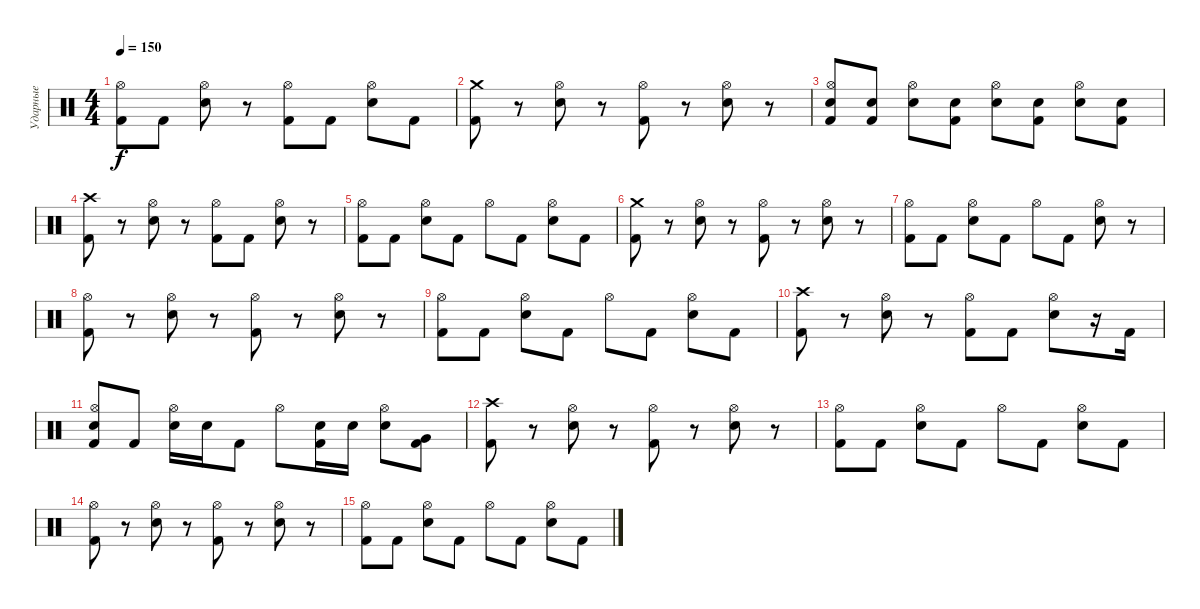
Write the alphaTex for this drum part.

\track ("Ударные" "Ударные") {instrument percussion}
\staff
\articulation defaults
\ts (4 4)
\tempo 150
\clef neutral
\ks c
("Kick (hit) 2" "Hi-Hat (open)").8{dy f} "Kick (hit) 2".8 ("Snare (hit) 2" "Hi-Hat (open)").8 r.8 ("Kick (hit) 2" "Hi-Hat (open)").8 "Kick (hit) 2".8 ("Snare (hit) 2" "Hi-Hat (open)").8 "Kick (hit) 2".8 |
("Kick (hit) 2" "Crash medium (hit)").8 r.8 ("Snare (hit) 2" "Hi-Hat (open)").8 r.8 ("Kick (hit) 2" "Hi-Hat (open)").8 r.8 ("Snare (hit) 2" "Hi-Hat (open)").8 r.8 |
("Kick (hit) 2" "Snare (hit) 2" "Hi-Hat (open)").8 ("Kick (hit) 2" "Snare (hit) 2").8 ("Snare (hit) 2" "Hi-Hat (open)").8 ("Kick (hit) 2" "Snare (hit) 2").8 ("Snare (hit) 2" "Hi-Hat (open)").8 ("Kick (hit) 2" "Snare (hit) 2").8 ("Snare (hit) 2" "Hi-Hat (open)").8 ("Kick (hit) 2" "Snare (hit) 2").8 |
("Kick (hit) 2" "Crash high (hit)").8 r.8 ("Snare (hit) 2" "Hi-Hat (open)").8 r.8 ("Kick (hit) 2" "Hi-Hat (open)").8 "Kick (hit) 2".8 ("Snare (hit) 2" "Hi-Hat (open)").8 r.8 |
("Kick (hit) 2" "Hi-Hat (open)").8 "Kick (hit) 2".8 ("Snare (hit) 2" "Hi-Hat (open)").8 "Kick (hit) 2".8 "Hi-Hat (open)".8 "Kick (hit) 2".8 ("Snare (hit) 2" "Hi-Hat (open)").8 "Kick (hit) 2".8 |
("Kick (hit) 2" "Crash medium (hit)").8 r.8 ("Snare (hit) 2" "Hi-Hat (open)").8 r.8 ("Kick (hit) 2" "Hi-Hat (open)").8 r.8 ("Snare (hit) 2" "Hi-Hat (open)").8 r.8 |
("Kick (hit) 2" "Hi-Hat (open)").8 "Kick (hit) 2".8 ("Snare (hit) 2" "Hi-Hat (open)").8 "Kick (hit) 2".8 "Hi-Hat (open)".8 "Kick (hit) 2".8 ("Snare (hit) 2" "Hi-Hat (open)").8 r.8 |
("Kick (hit) 2" "Hi-Hat (open)").8 r.8 ("Snare (hit) 2" "Hi-Hat (open)").8 r.8 ("Kick (hit) 2" "Hi-Hat (open)").8 r.8 ("Snare (hit) 2" "Hi-Hat (open)").8 r.8 |
("Kick (hit) 2" "Hi-Hat (open)").8 "Kick (hit) 2".8 ("Snare (hit) 2" "Hi-Hat (open)").8 "Kick (hit) 2".8 "Hi-Hat (open)".8 "Kick (hit) 2".8 ("Snare (hit) 2" "Hi-Hat (open)").8 "Kick (hit) 2".8 |
("Kick (hit) 2" "Crash high (hit)").8 r.8 ("Snare (hit) 2" "Hi-Hat (open)").8 r.8 ("Kick (hit) 2" "Hi-Hat (open)").8 "Kick (hit) 2".8 ("Snare (hit) 2" "Hi-Hat (open)").8 r.16 "Kick (hit) 2".16 |
("Kick (hit) 2" "Snare (hit) 2" "Hi-Hat (open)").8 "Kick (hit) 2".8 ("Snare (hit) 2" "Hi-Hat (open)").16 "Snare (hit) 2".16 "Kick (hit) 2".8 "Hi-Hat (open)".8 ("Kick (hit) 2" "Snare (hit) 2").16 "Snare (hit) 2".16 ("Snare (hit) 2" "Hi-Hat (open)").8 ("Kick (hit) 2" "Very Low Tom (hit)").8 |
("Kick (hit) 2" "Crash high (hit)").8 r.8 ("Snare (hit) 2" "Hi-Hat (open)").8 r.8 ("Kick (hit) 2" "Hi-Hat (open)").8 r.8 ("Snare (hit) 2" "Hi-Hat (open)").8 r.8 |
("Kick (hit) 2" "Hi-Hat (open)").8 "Kick (hit) 2".8 ("Snare (hit) 2" "Hi-Hat (open)").8 "Kick (hit) 2".8 "Hi-Hat (open)".8 "Kick (hit) 2".8 ("Snare (hit) 2" "Hi-Hat (open)").8 "Kick (hit) 2".8 |
("Kick (hit) 2" "Hi-Hat (open)").8 r.8 ("Snare (hit) 2" "Hi-Hat (open)").8 r.8 ("Kick (hit) 2" "Hi-Hat (open)").8 r.8 ("Snare (hit) 2" "Hi-Hat (open)").8 r.8 |
("Kick (hit) 2" "Hi-Hat (open)").8 "Kick (hit) 2".8 ("Snare (hit) 2" "Hi-Hat (open)").8 "Kick (hit) 2".8 "Hi-Hat (open)".8 "Kick (hit) 2".8 ("Snare (hit) 2" "Hi-Hat (open)").8 "Kick (hit) 2".8
